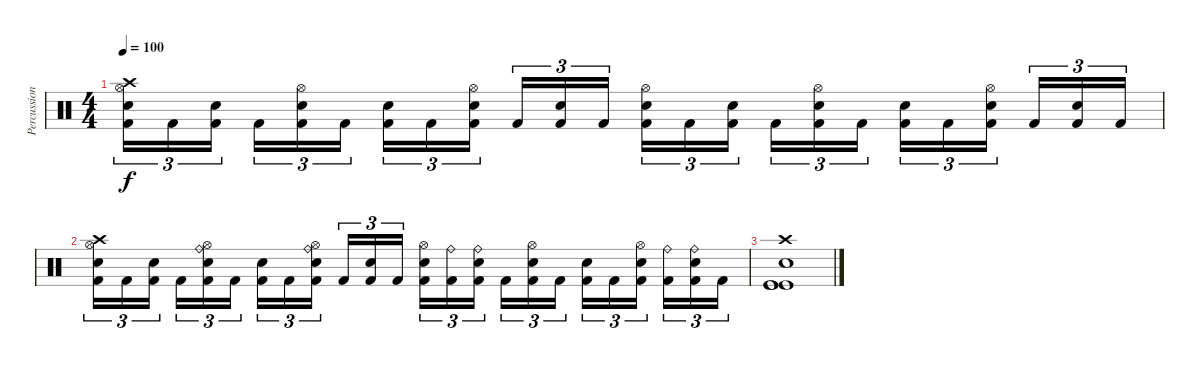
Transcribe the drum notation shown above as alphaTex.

\track ("Percussions" "Percussion") {instrument percussion}
\staff {score}
\articulation defaults
\ts (4 4)
\tempo 100
\clef neutral
\ks c
("Hi-Hat (open)" "Crash high (hit)" "Snare (hit) 2" "Kick (hit) 2").16{tu (3 2) dy f} "Kick (hit) 2".16{tu (3 2)} ("Snare (hit) 2" "Kick (hit) 2").16{tu (3 2)} "Kick (hit) 2".16{tu (3 2)} ("Hi-Hat (open)" "Snare (hit) 2" "Kick (hit) 2").16{tu (3 2)} "Kick (hit) 2".16{tu (3 2)} ("Snare (hit) 2" "Kick (hit) 2").16{tu (3 2)} "Kick (hit) 2".16{tu (3 2)} ("Hi-Hat (open)" "Snare (hit) 2" "Kick (hit) 2").16{tu (3 2)} "Kick (hit) 2".16{tu (3 2)} ("Snare (hit) 2" "Kick (hit) 2").16{tu (3 2)} "Kick (hit) 2".16{tu (3 2)} ("Hi-Hat (open)" "Snare (hit) 2" "Kick (hit) 2").16{tu (3 2)} "Kick (hit) 2".16{tu (3 2)} ("Snare (hit) 2" "Kick (hit) 2").16{tu (3 2)} "Kick (hit) 2".16{tu (3 2)} ("Hi-Hat (open)" "Snare (hit) 2" "Kick (hit) 2").16{tu (3 2)} "Kick (hit) 2".16{tu (3 2)} ("Snare (hit) 2" "Kick (hit) 2").16{tu (3 2)} "Kick (hit) 2".16{tu (3 2)} ("Hi-Hat (open)" "Snare (hit) 2" "Kick (hit) 2").16{tu (3 2)} "Kick (hit) 2".16{tu (3 2)} ("Snare (hit) 2" "Kick (hit) 2").16{tu (3 2)} "Kick (hit) 2".16{tu (3 2)} |
("Hi-Hat (open)" "Crash high (hit)" "Snare (hit) 2" "Kick (hit) 2").16{tu (3 2)} "Kick (hit) 2".16{tu (3 2)} ("Snare (hit) 2" "Kick (hit) 2").16{tu (3 2)} "Kick (hit) 2".16{tu (3 2)} ("Hi-Hat (open)" "Ride (bell)" "Snare (hit) 2" "Kick (hit) 2").16{tu (3 2)} "Kick (hit) 2".16{tu (3 2)} ("Snare (hit) 2" "Kick (hit) 2").16{tu (3 2)} "Kick (hit) 2".16{tu (3 2)} ("Hi-Hat (open)" "Ride (bell)" "Snare (hit) 2" "Kick (hit) 2").16{tu (3 2)} "Kick (hit) 2".16{tu (3 2)} ("Snare (hit) 2" "Kick (hit) 2").16{tu (3 2)} "Kick (hit) 2".16{tu (3 2)} ("Hi-Hat (open)" "Snare (hit) 2" "Kick (hit) 2").16{tu (3 2)} ("Ride (bell)" "Kick (hit) 2").16{tu (3 2)} ("Ride (bell)" "Snare (hit) 2" "Kick (hit) 2").16{tu (3 2)} "Kick (hit) 2".16{tu (3 2)} ("Hi-Hat (open)" "Snare (hit) 2" "Kick (hit) 2").16{tu (3 2)} "Kick (hit) 2".16{tu (3 2)} ("Snare (hit) 2" "Kick (hit) 2").16{tu (3 2)} "Kick (hit) 2".16{tu (3 2)} ("Hi-Hat (open)" "Snare (hit) 2" "Kick (hit) 2").16{tu (3 2)} ("Ride (bell)" "Kick (hit) 2").16{tu (3 2)} ("Ride (bell)" "Snare (hit) 2" "Kick (hit) 2").16{tu (3 2)} "Kick (hit) 2".16{tu (3 2)} |
("Crash high (hit)" "Kick (hit)" "Kick (hit)" "Kick (hit)" "Snare (hit) 2").1
